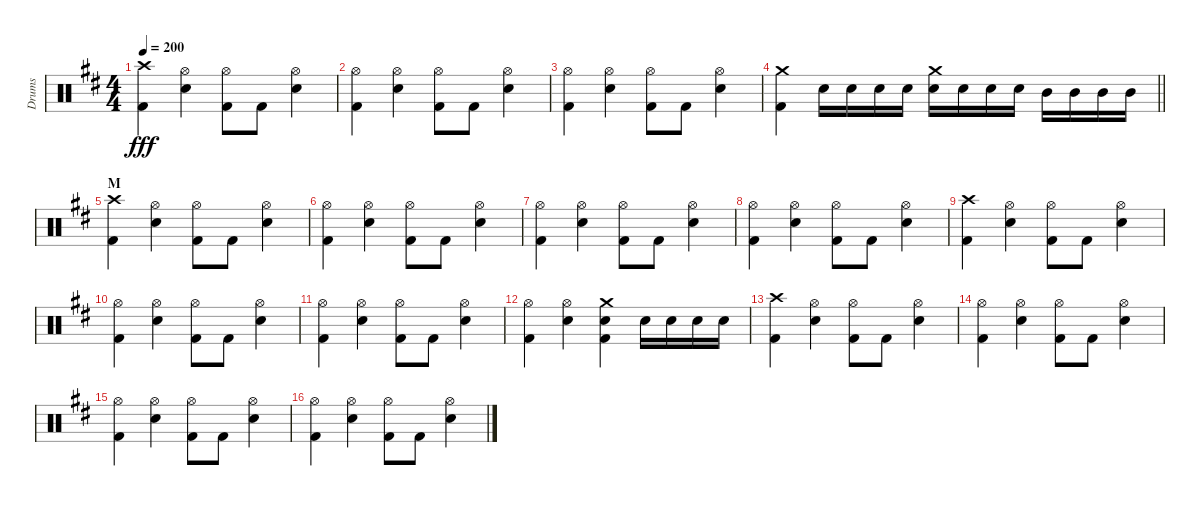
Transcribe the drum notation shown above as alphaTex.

\track ("Drums" "Drums") {instrument percussion}
\staff {score}
\articulation defaults
\ts (4 4)
\tempo 200
\clef neutral
\ks d
("Crash high (hit)" "Kick (hit) 2").4{dy fff} ("Hi-Hat (open)" "Snare (hit) 2").4 ("Hi-Hat (open)" "Kick (hit) 2").8 "Kick (hit) 2".8 ("Hi-Hat (open)" "Snare (hit) 2").4 |
("Hi-Hat (open)" "Kick (hit) 2").4 ("Hi-Hat (open)" "Snare (hit) 2").4 ("Hi-Hat (open)" "Kick (hit) 2").8 "Kick (hit) 2".8 ("Hi-Hat (open)" "Snare (hit) 2").4 |
("Hi-Hat (open)" "Kick (hit) 2").4 ("Hi-Hat (open)" "Snare (hit) 2").4 ("Hi-Hat (open)" "Kick (hit) 2").8 "Kick (hit) 2".8 ("Hi-Hat (open)" "Snare (hit) 2").4 |
\barLineRight lightlight
("Crash medium (hit)" "Kick (hit) 2").4 "Snare (hit) 2".16 "Snare (hit) 2".16 "Snare (hit) 2".16 "Snare (hit) 2".16 ("Crash medium (hit)" "Snare (hit) 2").16 "Snare (hit) 2".16 "Snare (hit) 2".16 "Snare (hit) 2".16 "Mid Tom (hit)".16 "Mid Tom (hit)".16 "Mid Tom (hit)".16 "Mid Tom (hit)".16 |
\section ("" "M")
("Crash high (hit)" "Kick (hit) 2").4 ("Hi-Hat (open)" "Snare (hit) 2").4 ("Hi-Hat (open)" "Kick (hit) 2").8 "Kick (hit) 2".8 ("Hi-Hat (open)" "Snare (hit) 2").4 |
("Hi-Hat (open)" "Kick (hit) 2").4 ("Hi-Hat (open)" "Snare (hit) 2").4 ("Hi-Hat (open)" "Kick (hit) 2").8 "Kick (hit) 2".8 ("Hi-Hat (open)" "Snare (hit) 2").4 |
("Hi-Hat (open)" "Kick (hit) 2").4 ("Hi-Hat (open)" "Snare (hit) 2").4 ("Hi-Hat (open)" "Kick (hit) 2").8 "Kick (hit) 2".8 ("Hi-Hat (open)" "Snare (hit) 2").4 |
("Hi-Hat (open)" "Kick (hit) 2").4 ("Hi-Hat (open)" "Snare (hit) 2").4 ("Hi-Hat (open)" "Kick (hit) 2").8 "Kick (hit) 2".8 ("Hi-Hat (open)" "Snare (hit) 2").4 |
("Crash high (hit)" "Kick (hit) 2").4 ("Hi-Hat (open)" "Snare (hit) 2").4 ("Hi-Hat (open)" "Kick (hit) 2").8 "Kick (hit) 2".8 ("Hi-Hat (open)" "Snare (hit) 2").4 |
("Hi-Hat (open)" "Kick (hit) 2").4 ("Hi-Hat (open)" "Snare (hit) 2").4 ("Hi-Hat (open)" "Kick (hit) 2").8 "Kick (hit) 2".8 ("Hi-Hat (open)" "Snare (hit) 2").4 |
("Hi-Hat (open)" "Kick (hit) 2").4 ("Hi-Hat (open)" "Snare (hit) 2").4 ("Hi-Hat (open)" "Kick (hit) 2").8 "Kick (hit) 2".8 ("Hi-Hat (open)" "Snare (hit) 2").4 |
("Hi-Hat (open)" "Kick (hit) 2").4 ("Hi-Hat (open)" "Snare (hit) 2").4 ("Crash medium (hit)" "Snare (hit) 2" "Kick (hit) 2").4 "Snare (hit) 2".16 "Snare (hit) 2".16 "Snare (hit) 2".16 "Snare (hit) 2".16 |
("Crash high (hit)" "Kick (hit) 2").4 ("Hi-Hat (open)" "Snare (hit) 2").4 ("Hi-Hat (open)" "Kick (hit) 2").8 "Kick (hit) 2".8 ("Hi-Hat (open)" "Snare (hit) 2").4 |
("Hi-Hat (open)" "Kick (hit) 2").4 ("Hi-Hat (open)" "Snare (hit) 2").4 ("Hi-Hat (open)" "Kick (hit) 2").8 "Kick (hit) 2".8 ("Hi-Hat (open)" "Snare (hit) 2").4 |
("Hi-Hat (open)" "Kick (hit) 2").4 ("Hi-Hat (open)" "Snare (hit) 2").4 ("Hi-Hat (open)" "Kick (hit) 2").8 "Kick (hit) 2".8 ("Hi-Hat (open)" "Snare (hit) 2").4 |
("Hi-Hat (open)" "Kick (hit) 2").4 ("Hi-Hat (open)" "Snare (hit) 2").4 ("Hi-Hat (open)" "Kick (hit) 2").8 "Kick (hit) 2".8 ("Hi-Hat (open)" "Snare (hit) 2").4
